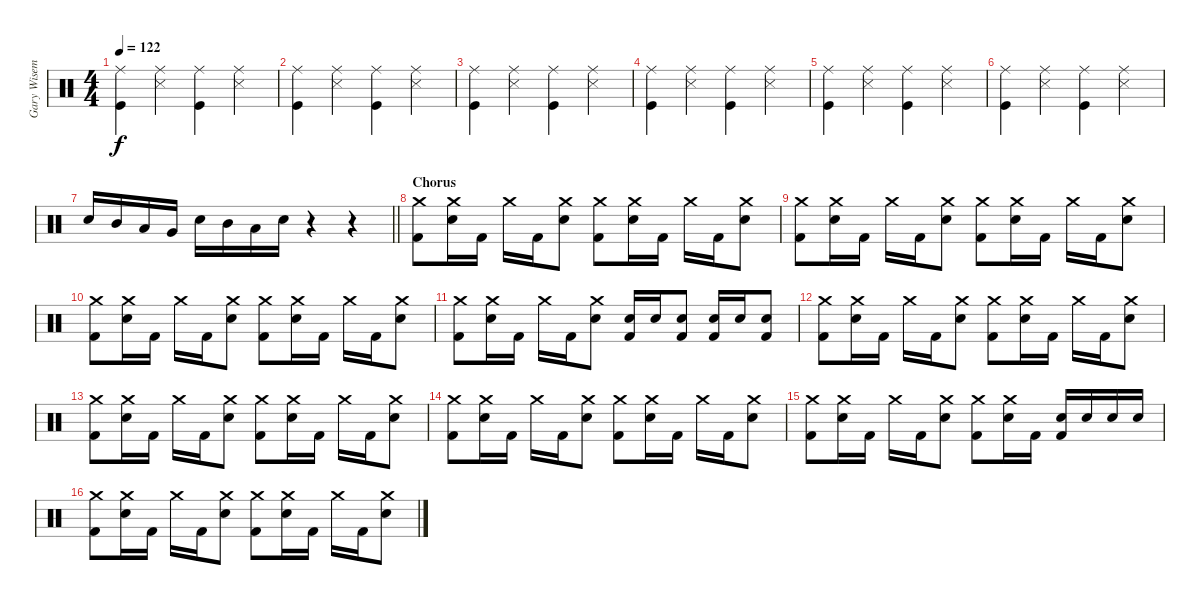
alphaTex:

\track ("Gary Wiseman - Drums" "Gary Wisem") {instrument percussion}
\staff {score}
\articulation defaults
\ts (4 4)
\tempo 122
\clef neutral
\ks c
("Ride (middle)" "Kick (hit)").4{dy f} ("Ride (middle)" "Snare (side stick) 3").4 ("Ride (middle)" "Kick (hit)").4 ("Ride (middle)" "Snare (side stick) 3").4 |
("Ride (middle)" "Kick (hit)").4 ("Ride (middle)" "Snare (side stick) 3").4 ("Ride (middle)" "Kick (hit)").4 ("Ride (middle)" "Snare (side stick) 3").4 |
("Ride (middle)" "Kick (hit)").4 ("Ride (middle)" "Snare (side stick) 3").4 ("Ride (middle)" "Kick (hit)").4 ("Ride (middle)" "Snare (side stick) 3").4 |
("Ride (middle)" "Kick (hit)").4 ("Ride (middle)" "Snare (side stick) 3").4 ("Ride (middle)" "Kick (hit)").4 ("Ride (middle)" "Snare (side stick) 3").4 |
("Ride (middle)" "Kick (hit)").4 ("Ride (middle)" "Snare (side stick) 3").4 ("Ride (middle)" "Kick (hit)").4 ("Ride (middle)" "Snare (side stick) 3").4 |
("Ride (middle)" "Kick (hit)").4 ("Ride (middle)" "Snare (side stick) 3").4 ("Ride (middle)" "Kick (hit)").4 ("Ride (middle)" "Snare (side stick) 3").4 |
\barLineRight lightlight "Electric Snare (hit)".16 "Mid Tom (hit)".16 "Low Tom (hit)".16 "Very Low Tom (hit)".16 "Electric Snare (hit)".16 "Mid Tom (hit)".16 "Low Tom (hit)".16 "Electric Snare (hit)".16
r.4 r.4 |
\section ("" "Chorus")
("Crash medium (hit)" "Kick (hit) 2").8 ("Crash medium (hit)" "Electric Snare (hit)").16 "Kick (hit) 2".16 "Crash medium (hit)".16 "Kick (hit) 2".16 ("Crash medium (hit)" "Electric Snare (hit)").8 ("Crash medium (hit)" "Kick (hit) 2").8 ("Crash medium (hit)" "Electric Snare (hit)").16 "Kick (hit) 2".16 "Crash medium (hit)".16 "Kick (hit) 2".16 ("Crash medium (hit)" "Electric Snare (hit)").8 |
("Crash medium (hit)" "Kick (hit) 2").8 ("Crash medium (hit)" "Electric Snare (hit)").16 "Kick (hit) 2".16 "Crash medium (hit)".16 "Kick (hit) 2".16 ("Crash medium (hit)" "Electric Snare (hit)").8 ("Crash medium (hit)" "Kick (hit) 2").8 ("Crash medium (hit)" "Electric Snare (hit)").16 "Kick (hit) 2".16 "Crash medium (hit)".16 "Kick (hit) 2".16 ("Crash medium (hit)" "Electric Snare (hit)").8 |
("Crash medium (hit)" "Kick (hit) 2").8 ("Crash medium (hit)" "Electric Snare (hit)").16 "Kick (hit) 2".16 "Crash medium (hit)".16 "Kick (hit) 2".16 ("Crash medium (hit)" "Electric Snare (hit)").8 ("Crash medium (hit)" "Kick (hit) 2").8 ("Crash medium (hit)" "Electric Snare (hit)").16 "Kick (hit) 2".16 "Crash medium (hit)".16 "Kick (hit) 2".16 ("Crash medium (hit)" "Electric Snare (hit)").8 |
("Crash medium (hit)" "Kick (hit) 2").8 ("Crash medium (hit)" "Electric Snare (hit)").16 "Kick (hit) 2".16 "Crash medium (hit)".16 "Kick (hit) 2".16 ("Crash medium (hit)" "Electric Snare (hit)").8 ("Electric Snare (hit)" "Kick (hit) 2").16 "Electric Snare (hit)".16 ("Electric Snare (hit)" "Kick (hit) 2").8 ("Electric Snare (hit)" "Kick (hit) 2").16 "Electric Snare (hit)".16 ("Electric Snare (hit)" "Kick (hit) 2").8 |
("Crash medium (hit)" "Kick (hit) 2").8 ("Crash medium (hit)" "Electric Snare (hit)").16 "Kick (hit) 2".16 "Crash medium (hit)".16 "Kick (hit) 2".16 ("Crash medium (hit)" "Electric Snare (hit)").8 ("Crash medium (hit)" "Kick (hit) 2").8 ("Crash medium (hit)" "Electric Snare (hit)").16 "Kick (hit) 2".16 "Crash medium (hit)".16 "Kick (hit) 2".16 ("Crash medium (hit)" "Electric Snare (hit)").8 |
("Crash medium (hit)" "Kick (hit) 2").8 ("Crash medium (hit)" "Electric Snare (hit)").16 "Kick (hit) 2".16 "Crash medium (hit)".16 "Kick (hit) 2".16 ("Crash medium (hit)" "Electric Snare (hit)").8 ("Crash medium (hit)" "Kick (hit) 2").8 ("Crash medium (hit)" "Electric Snare (hit)").16 "Kick (hit) 2".16 "Crash medium (hit)".16 "Kick (hit) 2".16 ("Crash medium (hit)" "Electric Snare (hit)").8 |
("Crash medium (hit)" "Kick (hit) 2").8 ("Crash medium (hit)" "Electric Snare (hit)").16 "Kick (hit) 2".16 "Crash medium (hit)".16 "Kick (hit) 2".16 ("Crash medium (hit)" "Electric Snare (hit)").8 ("Crash medium (hit)" "Kick (hit) 2").8 ("Crash medium (hit)" "Electric Snare (hit)").16 "Kick (hit) 2".16 "Crash medium (hit)".16 "Kick (hit) 2".16 ("Crash medium (hit)" "Electric Snare (hit)").8 |
("Crash medium (hit)" "Kick (hit) 2").8 ("Crash medium (hit)" "Electric Snare (hit)").16 "Kick (hit) 2".16 "Crash medium (hit)".16 "Kick (hit) 2".16 ("Crash medium (hit)" "Electric Snare (hit)").8 ("Crash medium (hit)" "Kick (hit) 2").8 ("Crash medium (hit)" "Electric Snare (hit)").16 "Kick (hit) 2".16 ("Electric Snare (hit)" "Kick (hit) 2").16 "Electric Snare (hit)".16 "Electric Snare (hit)".16 "Electric Snare (hit)".16 |
("Crash medium (hit)" "Kick (hit) 2").8 ("Crash medium (hit)" "Electric Snare (hit)").16 "Kick (hit) 2".16 "Crash medium (hit)".16 "Kick (hit) 2".16 ("Crash medium (hit)" "Electric Snare (hit)").8 ("Crash medium (hit)" "Kick (hit) 2").8 ("Crash medium (hit)" "Electric Snare (hit)").16 "Kick (hit) 2".16 "Crash medium (hit)".16 "Kick (hit) 2".16 ("Crash medium (hit)" "Electric Snare (hit)").8
